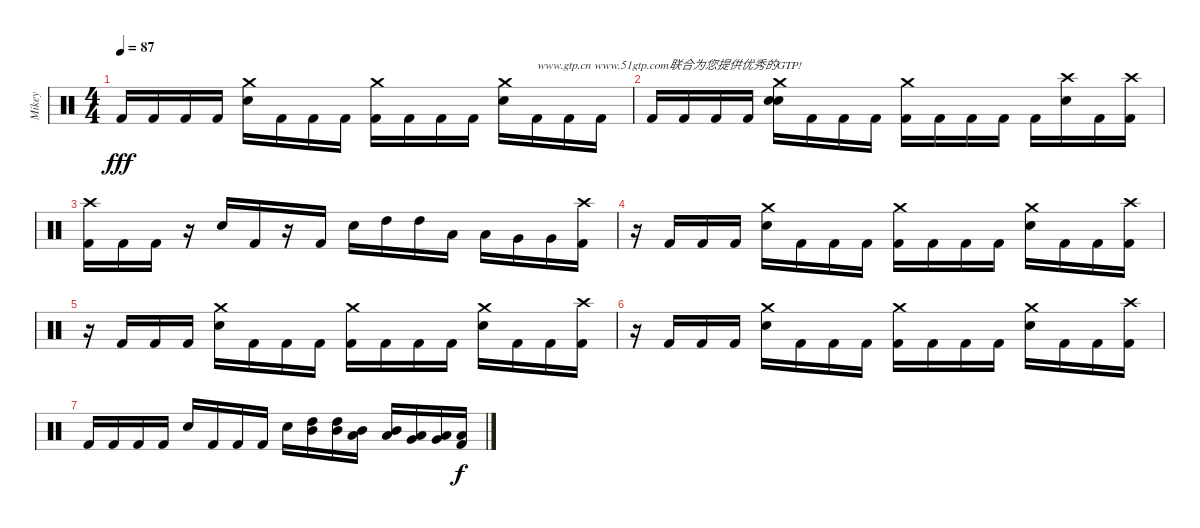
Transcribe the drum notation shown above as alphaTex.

\track ("Mikey" "Mikey") {instrument percussion}
\staff {score}
\articulation defaults
\ts (4 4)
\tempo 87
\clef neutral
\ks c "Kick (hit) 2".16{dy fff} "Kick (hit) 2".16 "Kick (hit) 2".16 "Kick (hit) 2".16
("Crash medium (hit)" "Electric Snare (hit)").16 "Kick (hit) 2".16 "Kick (hit) 2".16 "Kick (hit) 2".16 ("Crash medium (hit)" "Kick (hit) 2").16 "Kick (hit) 2".16 "Kick (hit) 2".16 "Kick (hit) 2".16 ("Crash medium (hit)" "Electric Snare (hit)").16 "Kick (hit) 2".16{txt "www.gtp.cn www.51gtp.com联合为您提供优秀的GTP!"} "Kick (hit) 2".16 "Kick (hit) 2".16 |
"Kick (hit) 2".16 "Kick (hit) 2".16 "Kick (hit) 2".16 "Kick (hit) 2".16 ("Electric Snare (hit)" "Crash medium (hit)" "Electric Snare (hit)").16 "Kick (hit) 2".16 "Kick (hit) 2".16 "Kick (hit) 2".16 ("Crash medium (hit)" "Kick (hit) 2").16 "Kick (hit) 2".16 "Kick (hit) 2".16 "Kick (hit) 2".16 "Kick (hit) 2".16 ("Electric Snare (hit)" "Crash high (hit)").16 "Kick (hit) 2".16 ("Kick (hit) 2" "Crash high (hit)").16 |
("Crash high (hit)" "Kick (hit) 2").16 "Kick (hit) 2".16 "Kick (hit) 2".16 r.16 "Electric Snare (hit)".16 "Kick (hit) 2".16 r.16 "Kick (hit) 2".16 "Electric Snare (hit)".16 "High Tom (hit)".16 "High Tom (hit)".16 "Low Tom (hit)".16 "Low Tom (hit)".16 "Very Low Tom (hit)".16 "Very Low Tom (hit)".16 ("Kick (hit) 2" "Crash high (hit)").16 |
r.16 "Kick (hit) 2".16 "Kick (hit) 2".16 "Kick (hit) 2".16 ("Crash medium (hit)" "Electric Snare (hit)").16 "Kick (hit) 2".16 "Kick (hit) 2".16 "Kick (hit) 2".16 ("Crash medium (hit)" "Kick (hit) 2").16 "Kick (hit) 2".16 "Kick (hit) 2".16 "Kick (hit) 2".16 ("Crash medium (hit)" "Electric Snare (hit)").16 "Kick (hit) 2".16 "Kick (hit) 2".16 ("Crash high (hit)" "Kick (hit) 2").16 |
r.16 "Kick (hit) 2".16 "Kick (hit) 2".16 "Kick (hit) 2".16 ("Crash medium (hit)" "Electric Snare (hit)").16 "Kick (hit) 2".16 "Kick (hit) 2".16 "Kick (hit) 2".16 ("Crash medium (hit)" "Kick (hit) 2").16 "Kick (hit) 2".16 "Kick (hit) 2".16 "Kick (hit) 2".16 ("Crash medium (hit)" "Electric Snare (hit)").16 "Kick (hit) 2".16 "Kick (hit) 2".16 ("Crash high (hit)" "Kick (hit) 2").16 |
r.16 "Kick (hit) 2".16 "Kick (hit) 2".16 "Kick (hit) 2".16 ("Crash medium (hit)" "Electric Snare (hit)").16 "Kick (hit) 2".16 "Kick (hit) 2".16 "Kick (hit) 2".16 ("Crash medium (hit)" "Kick (hit) 2").16 "Kick (hit) 2".16 "Kick (hit) 2".16 "Kick (hit) 2".16 ("Crash medium (hit)" "Electric Snare (hit)").16 "Kick (hit) 2".16 "Kick (hit) 2".16 ("Crash high (hit)" "Kick (hit) 2").16 |
"Kick (hit) 2".16 "Kick (hit) 2".16 "Kick (hit) 2".16 "Kick (hit) 2".16 "Electric Snare (hit)".16 "Kick (hit) 2".16 "Kick (hit) 2".16 "Kick (hit) 2".16 "Electric Snare (hit)".16 ("High Tom (hit)" "Mid Tom (hit)").16 ("High Tom (hit)" "Mid Tom (hit)").16 ("Mid Tom (hit)" "Low Tom (hit)").16 ("Mid Tom (hit)" "Low Tom (hit)").16 ("Low Tom (hit)" "Very Low Tom (hit)").16 ("Low Tom (hit)" "Very Low Tom (hit)").16 ("Kick (hit) 2" "Low Floor Tom (hit)").16{dy f}
